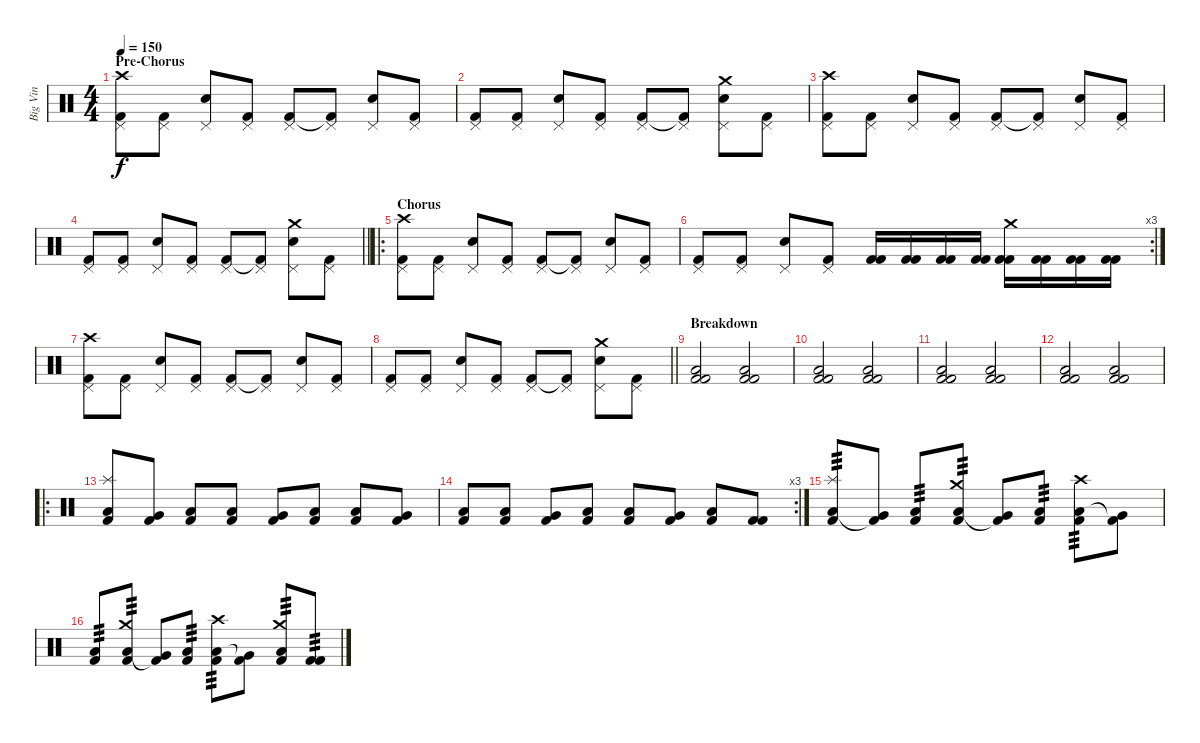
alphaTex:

\track ("Big Vin" "Big Vin") {instrument percussion}
\staff {score}
\articulation defaults
\ts (4 4)
\section ("" "Pre-Chorus")
\tempo 150
\clef neutral
\ks c
("Crash high (hit)" "Pedal Hi-Hat (hit)" "Kick (hit) 2").8{dy f} ("Pedal Hi-Hat (hit)" "Kick (hit) 2").8 ("Pedal Hi-Hat (hit)" "Electric Snare (hit)").8 ("Pedal Hi-Hat (hit)" "Kick (hit) 2").8 ("Pedal Hi-Hat (hit)" "Kick (hit) 2").8 ("Pedal Hi-Hat (hit)" "Kick (hit) 2"{t}).8 ("Pedal Hi-Hat (hit)" "Electric Snare (hit)").8 ("Pedal Hi-Hat (hit)" "Kick (hit) 2").8 |
("Pedal Hi-Hat (hit)" "Kick (hit) 2").8 ("Pedal Hi-Hat (hit)" "Kick (hit) 2").8 ("Pedal Hi-Hat (hit)" "Electric Snare (hit)").8 ("Pedal Hi-Hat (hit)" "Kick (hit) 2").8 ("Pedal Hi-Hat (hit)" "Kick (hit) 2").8 ("Pedal Hi-Hat (hit)" "Kick (hit) 2"{t}).8 ("Crash medium (hit)" "Pedal Hi-Hat (hit)" "Electric Snare (hit)").8 ("Pedal Hi-Hat (hit)" "Kick (hit) 2").8 |
("Crash high (hit)" "Pedal Hi-Hat (hit)" "Kick (hit) 2").8 ("Pedal Hi-Hat (hit)" "Kick (hit) 2").8 ("Pedal Hi-Hat (hit)" "Electric Snare (hit)").8 ("Pedal Hi-Hat (hit)" "Kick (hit) 2").8 ("Pedal Hi-Hat (hit)" "Kick (hit) 2").8 ("Pedal Hi-Hat (hit)" "Kick (hit) 2"{t}).8 ("Pedal Hi-Hat (hit)" "Electric Snare (hit)").8 ("Pedal Hi-Hat (hit)" "Kick (hit) 2").8 |
\barLineRight lightlight
("Pedal Hi-Hat (hit)" "Kick (hit) 2").8 ("Pedal Hi-Hat (hit)" "Kick (hit) 2").8 ("Pedal Hi-Hat (hit)" "Electric Snare (hit)").8 ("Pedal Hi-Hat (hit)" "Kick (hit) 2").8 ("Pedal Hi-Hat (hit)" "Kick (hit) 2").8 ("Pedal Hi-Hat (hit)" "Kick (hit) 2"{t}).8 ("Crash medium (hit)" "Pedal Hi-Hat (hit)" "Electric Snare (hit)").8 ("Pedal Hi-Hat (hit)" "Kick (hit) 2").8 |
\ro
\section ("" "Chorus")
("Crash high (hit)" "Pedal Hi-Hat (hit)" "Kick (hit) 2").8 ("Pedal Hi-Hat (hit)" "Kick (hit) 2").8 ("Pedal Hi-Hat (hit)" "Electric Snare (hit)").8 ("Pedal Hi-Hat (hit)" "Kick (hit) 2").8 ("Pedal Hi-Hat (hit)" "Kick (hit) 2").8 ("Pedal Hi-Hat (hit)" "Kick (hit) 2"{t}).8 ("Pedal Hi-Hat (hit)" "Electric Snare (hit)").8 ("Pedal Hi-Hat (hit)" "Kick (hit) 2").8 |
\rc 3
("Pedal Hi-Hat (hit)" "Kick (hit) 2").8 ("Pedal Hi-Hat (hit)" "Kick (hit) 2").8 ("Pedal Hi-Hat (hit)" "Electric Snare (hit)").8 ("Pedal Hi-Hat (hit)" "Kick (hit) 2").8 ("Kick (hit) 2" "Kick (hit) 2").16 ("Kick (hit) 2" "Kick (hit) 2").16 ("Kick (hit) 2" "Kick (hit) 2").16 ("Kick (hit) 2" "Kick (hit) 2").16 ("Crash medium (hit)" "Kick (hit) 2" "Kick (hit) 2").16 ("Kick (hit) 2" "Kick (hit) 2").16 ("Kick (hit) 2" "Kick (hit) 2").16 ("Kick (hit) 2" "Kick (hit) 2").16 |
("Crash high (hit)" "Pedal Hi-Hat (hit)" "Kick (hit) 2").8 ("Pedal Hi-Hat (hit)" "Kick (hit) 2").8 ("Pedal Hi-Hat (hit)" "Electric Snare (hit)").8 ("Pedal Hi-Hat (hit)" "Kick (hit) 2").8 ("Pedal Hi-Hat (hit)" "Kick (hit) 2").8 ("Pedal Hi-Hat (hit)" "Kick (hit) 2"{t}).8 ("Pedal Hi-Hat (hit)" "Electric Snare (hit)").8 ("Pedal Hi-Hat (hit)" "Kick (hit) 2").8 |
\barLineRight lightlight
("Pedal Hi-Hat (hit)" "Kick (hit) 2").8 ("Pedal Hi-Hat (hit)" "Kick (hit) 2").8 ("Pedal Hi-Hat (hit)" "Electric Snare (hit)").8 ("Pedal Hi-Hat (hit)" "Kick (hit) 2").8 ("Pedal Hi-Hat (hit)" "Kick (hit) 2").8 ("Pedal Hi-Hat (hit)" "Kick (hit) 2"{t}).8 ("Crash medium (hit)" "Pedal Hi-Hat (hit)" "Electric Snare (hit)").8 ("Pedal Hi-Hat (hit)" "Kick (hit) 2").8 |
\section ("" "Breakdown")
("Low Floor Tom (hit)" "Kick (hit) 2" "Kick (hit) 2").2 ("Low Floor Tom (hit)" "Kick (hit) 2" "Kick (hit) 2").2 |
("Low Floor Tom (hit)" "Kick (hit) 2" "Kick (hit) 2").2 ("Low Floor Tom (hit)" "Kick (hit) 2" "Kick (hit) 2").2 |
("Low Floor Tom (hit)" "Kick (hit) 2" "Kick (hit) 2").2 ("Low Floor Tom (hit)" "Kick (hit) 2" "Kick (hit) 2").2 |
("Low Floor Tom (hit)" "Kick (hit) 2" "Kick (hit) 2").2 ("Low Floor Tom (hit)" "Kick (hit) 2" "Kick (hit) 2").2 |
\ro
("Splash (hit)" "Low Tom (hit)" "Kick (hit) 2").8 ("Very Low Tom (hit)" "Kick (hit) 2").8 ("Low Floor Tom (hit)" "Kick (hit) 2").8 ("Low Tom (hit)" "Kick (hit) 2").8 ("Very Low Tom (hit)" "Kick (hit) 2").8 ("Low Floor Tom (hit)" "Kick (hit) 2").8 ("Low Tom (hit)" "Kick (hit) 2").8 ("Very Low Tom (hit)" "Kick (hit) 2").8 |
\rc 3
("Low Floor Tom (hit)" "Kick (hit) 2").8 ("Low Tom (hit)" "Kick (hit) 2").8 ("Very Low Tom (hit)" "Kick (hit) 2").8 ("Low Floor Tom (hit)" "Kick (hit) 2").8 ("Low Tom (hit)" "Kick (hit) 2").8 ("Very Low Tom (hit)" "Kick (hit) 2").8 ("Low Floor Tom (hit)" "Kick (hit) 2").8 ("Kick (hit) 2" "Kick (hit) 2").8 |
("Splash (hit)" "Low Tom (hit)" "Kick (hit) 2").8{tp 3} ("Very Low Tom (hit)" "Kick (hit) 2"{t}).8 ("Low Floor Tom (hit)" "Kick (hit) 2").8{tp 3} ("Crash medium (hit)" "Low Tom (hit)" "Kick (hit) 2").8{tp 3} ("Very Low Tom (hit)" "Kick (hit) 2"{t}).8 ("Low Floor Tom (hit)" "Kick (hit) 2").8{tp 3} ("Crash high (hit)" "Low Tom (hit)" "Kick (hit) 2").8{tp 3} ("Very Low Tom (hit)" "Kick (hit) 2"{t}).8 |
("Low Floor Tom (hit)" "Kick (hit) 2").8{tp 3} ("Crash medium (hit)" "Low Tom (hit)" "Kick (hit) 2").8{tp 3} ("Very Low Tom (hit)" "Kick (hit) 2"{t}).8 ("Low Floor Tom (hit)" "Kick (hit) 2").8{tp 3} ("Crash high (hit)" "Low Tom (hit)" "Kick (hit) 2").8{tp 3} ("Very Low Tom (hit)" "Kick (hit) 2"{t}).8 ("Crash medium (hit)" "Low Floor Tom (hit)" "Kick (hit) 2").8{tp 3} ("Kick (hit) 2" "Kick (hit) 2").8{tp 3}
